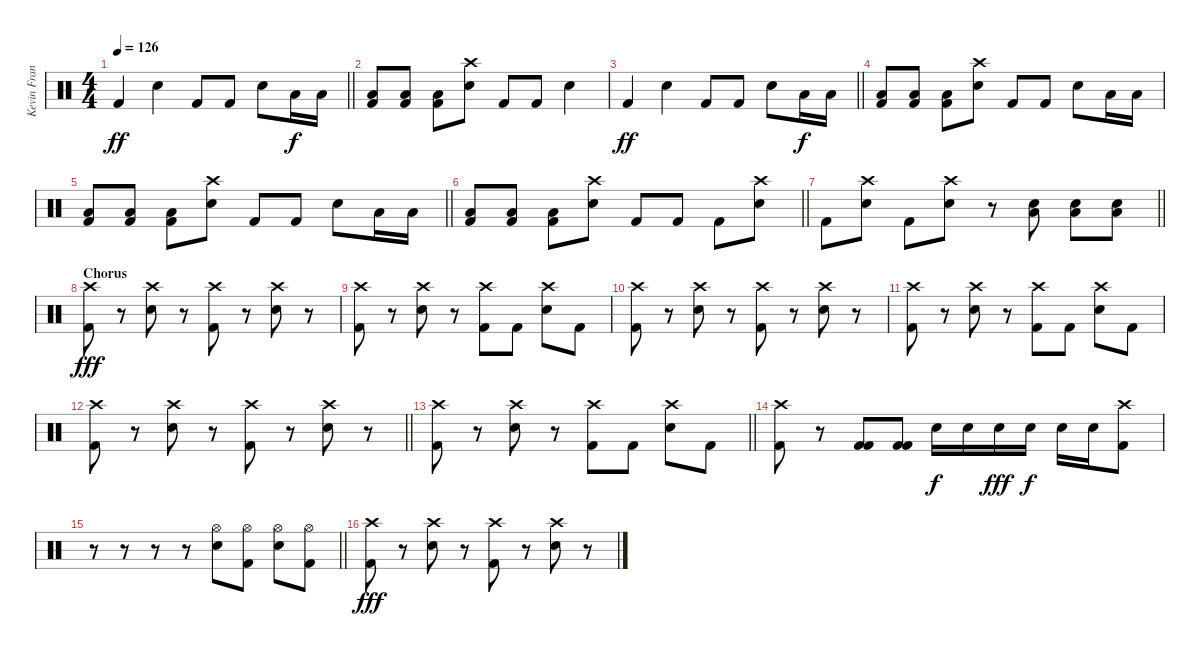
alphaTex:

\track ("Kevin Frank" "Kevin Fran") {instrument percussion}
\staff
\articulation defaults
\ts (4 4)
\tempo 126
\clef neutral
\barLineRight lightlight
\ks c "Kick (hit) 2".4{dy ff} "Snare (hit) 2".4 "Kick (hit) 2".8 "Kick (hit) 2".8 "Snare (hit) 2".8 "Low Tom (hit)".16{dy f} "Low Tom (hit)".16
|
("Low Tom (hit)" "Kick (hit) 2").8 ("Low Tom (hit)" "Kick (hit) 2").8 ("Low Tom (hit)" "Kick (hit) 2").8 ("Crash high (hit)" "Snare (hit) 2").8 "Kick (hit) 2".8 "Kick (hit) 2".8 "Snare (hit) 2".4 |
\barLineRight lightlight "Kick (hit) 2".4{dy ff} "Snare (hit) 2".4 "Kick (hit) 2".8 "Kick (hit) 2".8 "Snare (hit) 2".8 "Low Tom (hit)".16{dy f} "Low Tom (hit)".16
|
("Low Tom (hit)" "Kick (hit) 2").8 ("Low Tom (hit)" "Kick (hit) 2").8 ("Low Tom (hit)" "Kick (hit) 2").8 ("Crash high (hit)" "Snare (hit) 2").8 "Kick (hit) 2".8 "Kick (hit) 2".8 "Snare (hit) 2".8 "Low Tom (hit)".16 "Low Tom (hit)".16 |
\barLineRight lightlight
("Low Tom (hit)" "Kick (hit) 2").8 ("Low Tom (hit)" "Kick (hit) 2").8 ("Low Tom (hit)" "Kick (hit) 2").8 ("Crash high (hit)" "Snare (hit) 2").8 "Kick (hit) 2".8 "Kick (hit) 2".8 "Snare (hit) 2".8 "Low Tom (hit)".16 "Low Tom (hit)".16 |
\barLineRight lightlight
("Low Tom (hit)" "Kick (hit) 2").8 ("Low Tom (hit)" "Kick (hit) 2").8 ("Low Tom (hit)" "Kick (hit) 2").8 ("Crash high (hit)" "Snare (hit) 2").8 "Kick (hit) 2".8 "Kick (hit) 2".8 "Kick (hit) 2".8 ("Crash high (hit)" "Snare (hit) 2").8 |
\barLineRight lightlight "Kick (hit) 2".8
("Crash high (hit)" "Snare (hit) 2").8 "Kick (hit) 2".8 ("Crash high (hit)" "Snare (hit) 2").8 r.8 ("Low Tom (hit)" "Snare (hit) 2").8 ("Low Tom (hit)" "Snare (hit) 2").8 ("Low Tom (hit)" "Snare (hit) 2").8 |
\section ("" "Chorus")
("Crash high (hit)" "Kick (hit) 2").8{dy fff} r.8 ("Crash high (hit)" "Snare (hit) 2").8 r.8 ("Crash high (hit)" "Kick (hit) 2").8 r.8 ("Crash high (hit)" "Snare (hit) 2").8 r.8 |
("Crash high (hit)" "Kick (hit) 2").8 r.8 ("Crash high (hit)" "Snare (hit) 2").8 r.8 ("Crash high (hit)" "Kick (hit) 2").8 "Kick (hit) 2".8 ("Crash high (hit)" "Snare (hit) 2").8 "Kick (hit) 2".8 |
("Crash high (hit)" "Kick (hit) 2").8 r.8 ("Crash high (hit)" "Snare (hit) 2").8 r.8 ("Crash high (hit)" "Kick (hit) 2").8 r.8 ("Crash high (hit)" "Snare (hit) 2").8 r.8 |
("Crash high (hit)" "Kick (hit) 2").8 r.8 ("Crash high (hit)" "Snare (hit) 2").8 r.8 ("Crash high (hit)" "Kick (hit) 2").8 "Kick (hit) 2".8 ("Crash high (hit)" "Snare (hit) 2").8 "Kick (hit) 2".8 |
\barLineRight lightlight
("Crash high (hit)" "Kick (hit) 2").8 r.8 ("Crash high (hit)" "Snare (hit) 2").8 r.8 ("Crash high (hit)" "Kick (hit) 2").8 r.8 ("Crash high (hit)" "Snare (hit) 2").8 r.8 |
\barLineRight lightlight
("Crash high (hit)" "Kick (hit) 2").8 r.8 ("Crash high (hit)" "Snare (hit) 2").8 r.8 ("Crash high (hit)" "Kick (hit) 2").8 "Kick (hit) 2".8 ("Crash high (hit)" "Snare (hit) 2").8 "Kick (hit) 2".8 |
("Crash high (hit)" "Kick (hit) 2").8 r.8 ("Kick (hit) 2" "Kick (hit) 2").8 ("Kick (hit) 2" "Kick (hit) 2").8 "Snare (hit) 2".16{dy f} "Snare (hit) 2".16 "Snare (hit) 2".16{dy fff} "Snare (hit) 2".16{dy f} "Snare (hit) 2".16 "Snare (hit) 2".16 ("Crash high (hit)" "Kick (hit) 2").8 |
\barLineRight lightlight
r.8 r.8 r.8 r.8 ("Hi-Hat (open)" "Snare (hit) 2").8 ("Hi-Hat (open)" "Kick (hit) 2").8 ("Hi-Hat (open)" "Snare (hit) 2").8 ("Hi-Hat (open)" "Kick (hit) 2").8 |
("Crash high (hit)" "Kick (hit) 2").8{dy fff} r.8 ("Crash high (hit)" "Snare (hit) 2").8 r.8 ("Crash high (hit)" "Kick (hit) 2").8 r.8 ("Crash high (hit)" "Snare (hit) 2").8 r.8
